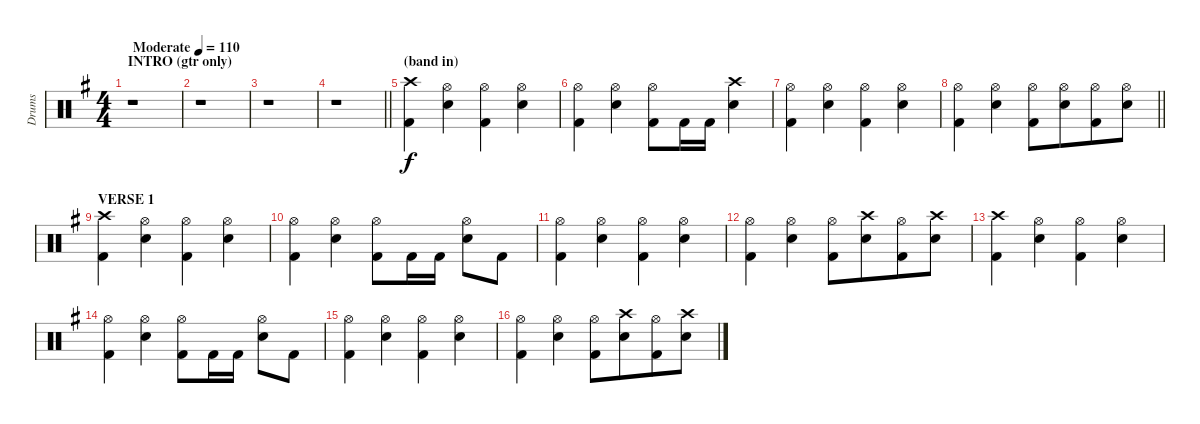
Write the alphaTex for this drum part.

\track ("Drums" "Drums") {instrument percussion}
\staff {score}
\articulation defaults
\ts (4 4)
\section ("" "INTRO (gtr only)")
\tempo (110 "Moderate")
\clef neutral
\ks eminor
r.1{dy f} |
r.1 |
r.1 |
\barLineRight lightlight
r.1 |
\section ("" "(band in)")
("Crash high (hit)" "Kick (hit) 2").4 ("Hi-Hat (open)" "Electric Snare (hit)").4 ("Hi-Hat (open)" "Kick (hit) 2").4 ("Hi-Hat (open)" "Electric Snare (hit)").4 |
("Hi-Hat (open)" "Kick (hit) 2").4 ("Hi-Hat (open)" "Electric Snare (hit)").4 ("Hi-Hat (open)" "Kick (hit) 2").8 "Kick (hit) 2".16 "Kick (hit) 2".16 ("Crash high (hit)" "Electric Snare (hit)").4 |
("Hi-Hat (open)" "Kick (hit) 2").4 ("Hi-Hat (open)" "Electric Snare (hit)").4 ("Hi-Hat (open)" "Kick (hit) 2").4 ("Hi-Hat (open)" "Electric Snare (hit)").4 |
\barLineRight lightlight
("Hi-Hat (open)" "Kick (hit) 2").4 ("Hi-Hat (open)" "Electric Snare (hit)").4 ("Hi-Hat (open)" "Kick (hit) 2").8 ("Hi-Hat (open)" "Electric Snare (hit)").8{beam merge} ("Hi-Hat (open)" "Kick (hit) 2").8 ("Hi-Hat (open)" "Electric Snare (hit)").8 |
\section ("" "VERSE 1")
("Crash high (hit)" "Kick (hit) 2").4 ("Hi-Hat (open)" "Electric Snare (hit)").4 ("Hi-Hat (open)" "Kick (hit) 2").4 ("Hi-Hat (open)" "Electric Snare (hit)").4 |
("Hi-Hat (open)" "Kick (hit) 2").4 ("Hi-Hat (open)" "Electric Snare (hit)").4 ("Hi-Hat (open)" "Kick (hit) 2").8 "Kick (hit) 2".16 "Kick (hit) 2".16 ("Hi-Hat (open)" "Electric Snare (hit)").8 "Kick (hit) 2".8 |
("Hi-Hat (open)" "Kick (hit) 2").4 ("Hi-Hat (open)" "Electric Snare (hit)").4 ("Hi-Hat (open)" "Kick (hit) 2").4 ("Hi-Hat (open)" "Electric Snare (hit)").4 |
("Hi-Hat (open)" "Kick (hit) 2").4 ("Hi-Hat (open)" "Electric Snare (hit)").4 ("Hi-Hat (open)" "Kick (hit) 2").8 ("Crash high (hit)" "Electric Snare (hit)").8{beam merge} ("Hi-Hat (open)" "Kick (hit) 2").8 ("Crash high (hit)" "Electric Snare (hit)").8 |
("Crash high (hit)" "Kick (hit) 2").4 ("Hi-Hat (open)" "Electric Snare (hit)").4 ("Hi-Hat (open)" "Kick (hit) 2").4 ("Hi-Hat (open)" "Electric Snare (hit)").4 |
("Hi-Hat (open)" "Kick (hit) 2").4 ("Hi-Hat (open)" "Electric Snare (hit)").4 ("Hi-Hat (open)" "Kick (hit) 2").8 "Kick (hit) 2".16 "Kick (hit) 2".16 ("Hi-Hat (open)" "Electric Snare (hit)").8 "Kick (hit) 2".8 |
("Hi-Hat (open)" "Kick (hit) 2").4 ("Hi-Hat (open)" "Electric Snare (hit)").4 ("Hi-Hat (open)" "Kick (hit) 2").4 ("Hi-Hat (open)" "Electric Snare (hit)").4 |
("Hi-Hat (open)" "Kick (hit) 2").4 ("Hi-Hat (open)" "Electric Snare (hit)").4 ("Hi-Hat (open)" "Kick (hit) 2").8 ("Crash high (hit)" "Electric Snare (hit)").8{beam merge} ("Hi-Hat (open)" "Kick (hit) 2").8 ("Crash high (hit)" "Electric Snare (hit)").8
